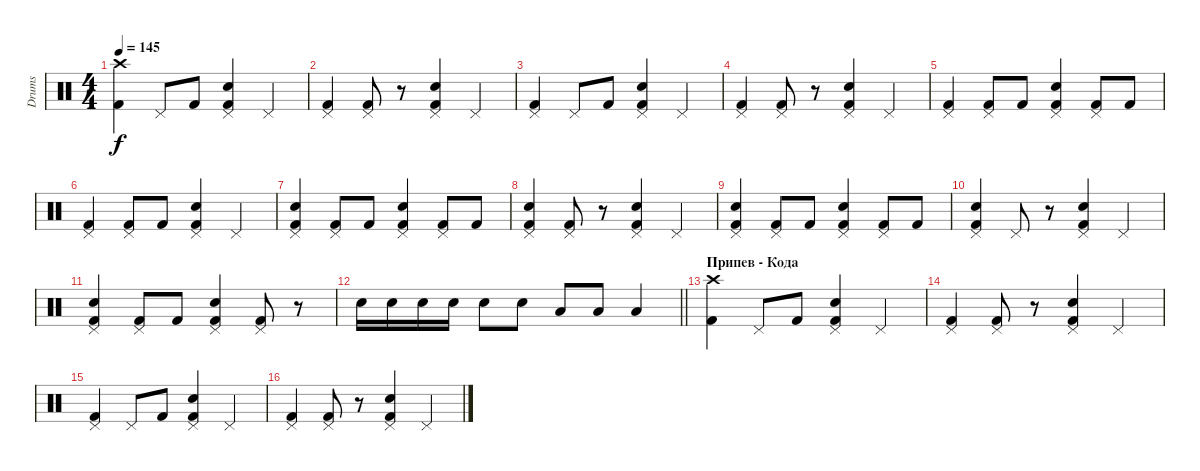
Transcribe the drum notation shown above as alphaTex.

\track ("Drums" "Drums") {instrument percussion}
\staff {score}
\articulation defaults
\ts (4 4)
\tempo 145
\clef neutral
\ks c
("Crash high (hit)" "Kick (hit) 2").4{dy f} "Pedal Hi-Hat (hit)".8 "Kick (hit) 2".8 ("Pedal Hi-Hat (hit)" "Electric Snare (hit)" "Kick (hit) 2").4 "Pedal Hi-Hat (hit)".4 |
("Pedal Hi-Hat (hit)" "Kick (hit) 2").4 ("Pedal Hi-Hat (hit)" "Kick (hit) 2").8 r.8 ("Pedal Hi-Hat (hit)" "Electric Snare (hit)" "Kick (hit) 2").4 "Pedal Hi-Hat (hit)".4 |
("Pedal Hi-Hat (hit)" "Kick (hit) 2").4 "Pedal Hi-Hat (hit)".8 "Kick (hit) 2".8 ("Pedal Hi-Hat (hit)" "Electric Snare (hit)" "Kick (hit) 2").4 "Pedal Hi-Hat (hit)".4 |
("Pedal Hi-Hat (hit)" "Kick (hit) 2").4 ("Pedal Hi-Hat (hit)" "Kick (hit) 2").8 r.8 ("Pedal Hi-Hat (hit)" "Electric Snare (hit)" "Kick (hit) 2").4 "Pedal Hi-Hat (hit)".4 |
("Pedal Hi-Hat (hit)" "Kick (hit) 2").4 ("Pedal Hi-Hat (hit)" "Kick (hit) 2").8 "Kick (hit) 2".8 ("Pedal Hi-Hat (hit)" "Electric Snare (hit)" "Kick (hit) 2").4 ("Pedal Hi-Hat (hit)" "Kick (hit) 2").8 "Kick (hit) 2".8 |
("Pedal Hi-Hat (hit)" "Kick (hit) 2").4 ("Pedal Hi-Hat (hit)" "Kick (hit) 2").8 "Kick (hit) 2".8 ("Pedal Hi-Hat (hit)" "Electric Snare (hit)" "Kick (hit) 2").4 "Pedal Hi-Hat (hit)".4 |
("Pedal Hi-Hat (hit)" "Electric Snare (hit)" "Kick (hit) 2").4 ("Pedal Hi-Hat (hit)" "Kick (hit) 2").8 "Kick (hit) 2".8 ("Pedal Hi-Hat (hit)" "Electric Snare (hit)" "Kick (hit) 2").4 ("Pedal Hi-Hat (hit)" "Kick (hit) 2").8 "Kick (hit) 2".8 |
("Pedal Hi-Hat (hit)" "Electric Snare (hit)" "Kick (hit) 2").4 ("Pedal Hi-Hat (hit)" "Kick (hit) 2").8 r.8 ("Pedal Hi-Hat (hit)" "Electric Snare (hit)" "Kick (hit) 2").4 "Pedal Hi-Hat (hit)".4 |
("Pedal Hi-Hat (hit)" "Electric Snare (hit)" "Kick (hit) 2").4 ("Pedal Hi-Hat (hit)" "Kick (hit) 2").8 "Kick (hit) 2".8 ("Pedal Hi-Hat (hit)" "Electric Snare (hit)" "Kick (hit) 2").4 ("Pedal Hi-Hat (hit)" "Kick (hit) 2").8 "Kick (hit) 2".8 |
("Pedal Hi-Hat (hit)" "Electric Snare (hit)" "Kick (hit) 2").4 "Pedal Hi-Hat (hit)".8 r.8 ("Pedal Hi-Hat (hit)" "Electric Snare (hit)" "Kick (hit) 2").4 "Pedal Hi-Hat (hit)".4 |
("Pedal Hi-Hat (hit)" "Electric Snare (hit)" "Kick (hit) 2").4 ("Pedal Hi-Hat (hit)" "Kick (hit) 2").8 "Kick (hit) 2".8 ("Pedal Hi-Hat (hit)" "Electric Snare (hit)" "Kick (hit) 2").4 ("Pedal Hi-Hat (hit)" "Kick (hit) 2").8 r.8 |
\barLineRight lightlight "Electric Snare (hit)".16 "Electric Snare (hit)".16 "Electric Snare (hit)".16 "Electric Snare (hit)".16 "Electric Snare (hit)".8 "Electric Snare (hit)".8 "Low Tom (hit)".8 "Low Tom (hit)".8 "Low Tom (hit)".4
|
\section ("" "Припев - Кода")
("Crash high (hit)" "Kick (hit) 2").4 "Pedal Hi-Hat (hit)".8 "Kick (hit) 2".8 ("Pedal Hi-Hat (hit)" "Electric Snare (hit)" "Kick (hit) 2").4 "Pedal Hi-Hat (hit)".4 |
("Pedal Hi-Hat (hit)" "Kick (hit) 2").4 ("Pedal Hi-Hat (hit)" "Kick (hit) 2").8 r.8 ("Pedal Hi-Hat (hit)" "Electric Snare (hit)" "Kick (hit) 2").4 "Pedal Hi-Hat (hit)".4 |
("Pedal Hi-Hat (hit)" "Kick (hit) 2").4 "Pedal Hi-Hat (hit)".8 "Kick (hit) 2".8 ("Pedal Hi-Hat (hit)" "Electric Snare (hit)" "Kick (hit) 2").4 "Pedal Hi-Hat (hit)".4 |
("Pedal Hi-Hat (hit)" "Kick (hit) 2").4 ("Pedal Hi-Hat (hit)" "Kick (hit) 2").8 r.8 ("Pedal Hi-Hat (hit)" "Electric Snare (hit)" "Kick (hit) 2").4 "Pedal Hi-Hat (hit)".4
